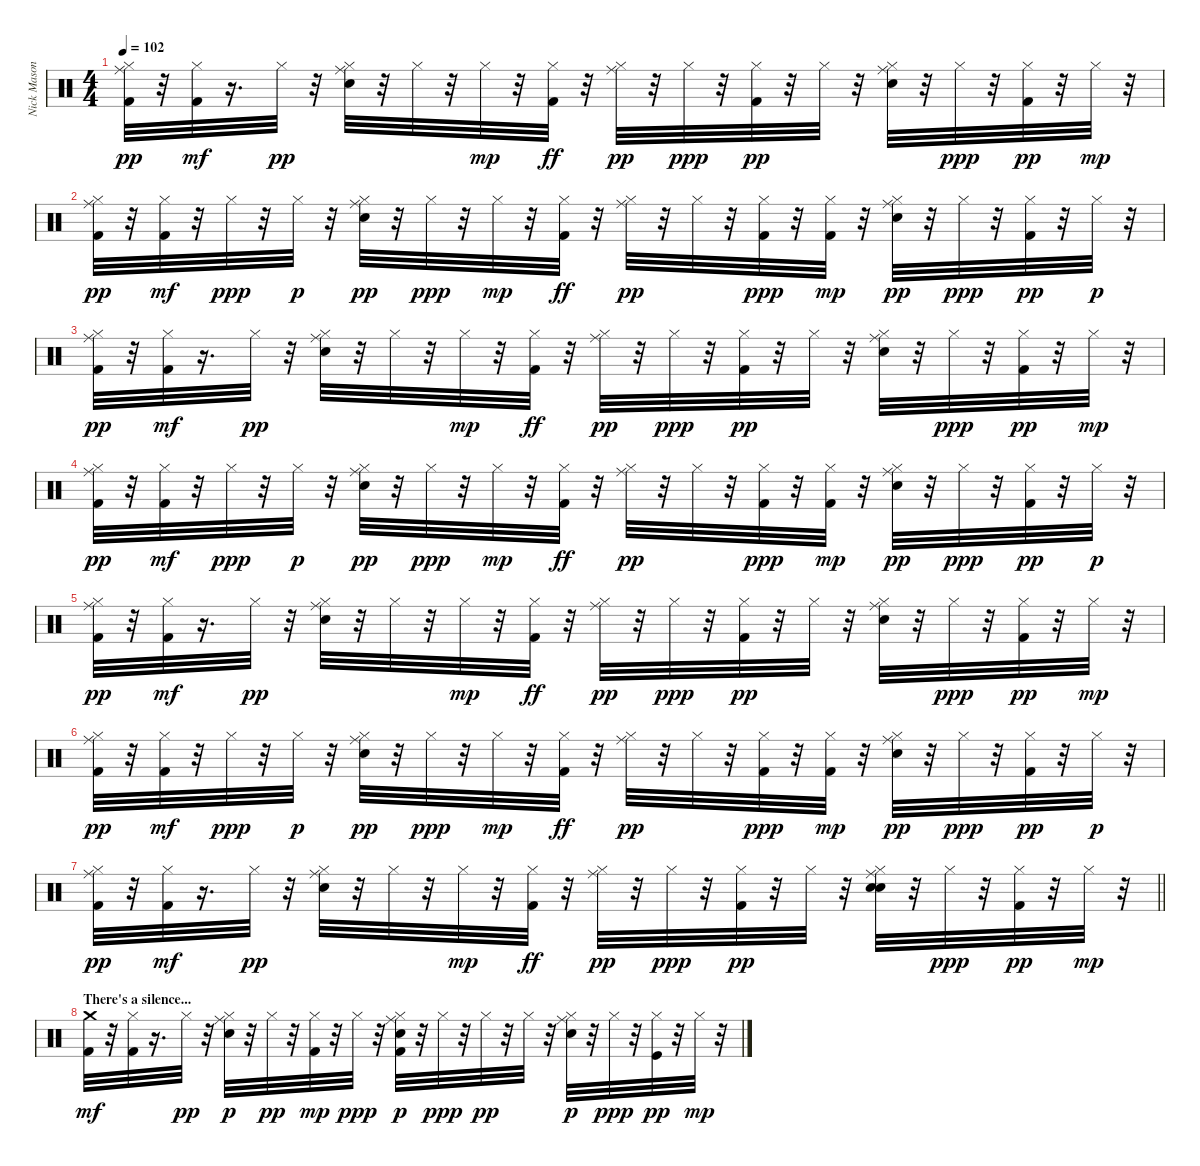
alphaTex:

\track ("Nick Mason / Gary Wallis" "Nick Mason") {instrument percussion}
\staff {score}
\articulation defaults
\ts (4 4)
\tempo 102
\clef neutral
\ks c
("Kick (hit) 2" "Hi-Hat (closed)" "Ride (middle)").32{dy pp} r.32 ("Hi-Hat (closed)" "Kick (hit) 2").32{dy mf} r.16{d} "Hi-Hat (closed)".32{dy pp} r.32 ("Snare (hit) 2" "Hi-Hat (closed)" "Ride (middle)").32 r.32 "Hi-Hat (closed)".32 r.32 "Hi-Hat (closed)".32{dy mp} r.32 ("Hi-Hat (closed)" "Kick (hit) 2").32{dy ff} r.32 ("Hi-Hat (closed)" "Ride (middle)").32{dy pp} r.32 "Hi-Hat (closed)".32{dy ppp} r.32 ("Hi-Hat (closed)" "Kick (hit) 2").32{dy pp} r.32 "Hi-Hat (closed)".32 r.32 ("Snare (hit) 2" "Hi-Hat (closed)" "Ride (middle)").32 r.32 "Hi-Hat (closed)".32{dy ppp} r.32 ("Kick (hit) 2" "Hi-Hat (closed)").32{dy pp} r.32 "Hi-Hat (closed)".32{dy mp} r.32 |
("Kick (hit) 2" "Hi-Hat (closed)" "Ride (middle)").32{dy pp} r.32 ("Hi-Hat (closed)" "Kick (hit) 2").32{dy mf} r.32 "Hi-Hat (closed)".32{dy ppp} r.32 "Hi-Hat (closed)".32{dy p} r.32 ("Snare (hit) 2" "Hi-Hat (closed)" "Ride (middle)").32{dy pp} r.32 "Hi-Hat (closed)".32{dy ppp} r.32 "Hi-Hat (closed)".32{dy mp} r.32 ("Hi-Hat (closed)" "Kick (hit) 2").32{dy ff} r.32 ("Hi-Hat (closed)" "Ride (middle)").32{dy pp} r.32 "Hi-Hat (closed)".32 r.32 ("Hi-Hat (closed)" "Kick (hit) 2").32{dy ppp} r.32 ("Hi-Hat (closed)" "Kick (hit) 2").32{dy mp} r.32 ("Snare (hit) 2" "Hi-Hat (closed)" "Ride (middle)").32{dy pp} r.32 "Hi-Hat (closed)".32{dy ppp} r.32 ("Kick (hit) 2" "Hi-Hat (closed)").32{dy pp} r.32 "Hi-Hat (closed)".32{dy p} r.32 |
("Kick (hit) 2" "Hi-Hat (closed)" "Ride (middle)").32{dy pp} r.32 ("Hi-Hat (closed)" "Kick (hit) 2").32{dy mf} r.16{d} "Hi-Hat (closed)".32{dy pp} r.32 ("Snare (hit) 2" "Hi-Hat (closed)" "Ride (middle)").32 r.32 "Hi-Hat (closed)".32 r.32 "Hi-Hat (closed)".32{dy mp} r.32 ("Hi-Hat (closed)" "Kick (hit) 2").32{dy ff} r.32 ("Hi-Hat (closed)" "Ride (middle)").32{dy pp} r.32 "Hi-Hat (closed)".32{dy ppp} r.32 ("Hi-Hat (closed)" "Kick (hit) 2").32{dy pp} r.32 "Hi-Hat (closed)".32 r.32 ("Snare (hit) 2" "Hi-Hat (closed)" "Ride (middle)").32 r.32 "Hi-Hat (closed)".32{dy ppp} r.32 ("Kick (hit) 2" "Hi-Hat (closed)").32{dy pp} r.32 "Hi-Hat (closed)".32{dy mp} r.32 |
("Kick (hit) 2" "Hi-Hat (closed)" "Ride (middle)").32{dy pp} r.32 ("Hi-Hat (closed)" "Kick (hit) 2").32{dy mf} r.32 "Hi-Hat (closed)".32{dy ppp} r.32 "Hi-Hat (closed)".32{dy p} r.32 ("Snare (hit) 2" "Hi-Hat (closed)" "Ride (middle)").32{dy pp} r.32 "Hi-Hat (closed)".32{dy ppp} r.32 "Hi-Hat (closed)".32{dy mp} r.32 ("Hi-Hat (closed)" "Kick (hit) 2").32{dy ff} r.32 ("Hi-Hat (closed)" "Ride (middle)").32{dy pp} r.32 "Hi-Hat (closed)".32 r.32 ("Hi-Hat (closed)" "Kick (hit) 2").32{dy ppp} r.32 ("Hi-Hat (closed)" "Kick (hit) 2").32{dy mp} r.32 ("Snare (hit) 2" "Hi-Hat (closed)" "Ride (middle)").32{dy pp} r.32 "Hi-Hat (closed)".32{dy ppp} r.32 ("Kick (hit) 2" "Hi-Hat (closed)").32{dy pp} r.32 "Hi-Hat (closed)".32{dy p} r.32 |
("Kick (hit) 2" "Hi-Hat (closed)" "Ride (middle)").32{dy pp} r.32 ("Hi-Hat (closed)" "Kick (hit) 2").32{dy mf} r.16{d} "Hi-Hat (closed)".32{dy pp} r.32 ("Snare (hit) 2" "Hi-Hat (closed)" "Ride (middle)").32 r.32 "Hi-Hat (closed)".32 r.32 "Hi-Hat (closed)".32{dy mp} r.32 ("Hi-Hat (closed)" "Kick (hit) 2").32{dy ff} r.32 ("Hi-Hat (closed)" "Ride (middle)").32{dy pp} r.32 "Hi-Hat (closed)".32{dy ppp} r.32 ("Hi-Hat (closed)" "Kick (hit) 2").32{dy pp} r.32 "Hi-Hat (closed)".32 r.32 ("Snare (hit) 2" "Hi-Hat (closed)" "Ride (middle)").32 r.32 "Hi-Hat (closed)".32{dy ppp} r.32 ("Kick (hit) 2" "Hi-Hat (closed)").32{dy pp} r.32 "Hi-Hat (closed)".32{dy mp} r.32 |
("Kick (hit) 2" "Hi-Hat (closed)" "Ride (middle)").32{dy pp} r.32 ("Hi-Hat (closed)" "Kick (hit) 2").32{dy mf} r.32 "Hi-Hat (closed)".32{dy ppp} r.32 "Hi-Hat (closed)".32{dy p} r.32 ("Snare (hit) 2" "Hi-Hat (closed)" "Ride (middle)").32{dy pp} r.32 "Hi-Hat (closed)".32{dy ppp} r.32 "Hi-Hat (closed)".32{dy mp} r.32 ("Hi-Hat (closed)" "Kick (hit) 2").32{dy ff} r.32 ("Hi-Hat (closed)" "Ride (middle)").32{dy pp} r.32 "Hi-Hat (closed)".32 r.32 ("Hi-Hat (closed)" "Kick (hit) 2").32{dy ppp} r.32 ("Hi-Hat (closed)" "Kick (hit) 2").32{dy mp} r.32 ("Snare (hit) 2" "Hi-Hat (closed)" "Ride (middle)").32{dy pp} r.32 "Hi-Hat (closed)".32{dy ppp} r.32 ("Kick (hit) 2" "Hi-Hat (closed)").32{dy pp} r.32 "Hi-Hat (closed)".32{dy p} r.32 |
\barLineRight lightlight
("Kick (hit) 2" "Hi-Hat (closed)" "Ride (middle)").32{dy pp} r.32 ("Hi-Hat (closed)" "Kick (hit) 2").32{dy mf} r.16{d} "Hi-Hat (closed)".32{dy pp} r.32 ("Snare (hit) 2" "Hi-Hat (closed)" "Ride (middle)").32 r.32 "Hi-Hat (closed)".32 r.32 "Hi-Hat (closed)".32{dy mp} r.32 ("Hi-Hat (closed)" "Kick (hit) 2").32{dy ff} r.32 ("Hi-Hat (closed)" "Ride (middle)").32{dy pp} r.32 "Hi-Hat (closed)".32{dy ppp} r.32 ("Hi-Hat (closed)" "Kick (hit) 2").32{dy pp} r.32 "Hi-Hat (closed)".32 r.32 ("Snare (hit) 2" "Electric Snare (hit)" "Hi-Hat (closed)" "Ride (middle)").32 r.32 "Hi-Hat (closed)".32{dy ppp} r.32 ("Kick (hit) 2" "Hi-Hat (closed)").32{dy pp} r.32 "Hi-Hat (closed)".32{dy mp} r.32 |
\section ("" "There's a silence...")
("Kick (hit) 2" "Crash medium (hit)").32{dy mf} r.32 ("Hi-Hat (closed)" "Kick (hit) 2").32 r.16{d} "Hi-Hat (closed)".32{dy pp} r.32 ("Snare (hit) 2" "Hi-Hat (closed)" "Ride (middle)").32{dy p} r.32 "Hi-Hat (closed)".32{dy pp} r.32 ("Kick (hit) 2" "Hi-Hat (closed)").32{dy mp} r.32 "Hi-Hat (closed)".32{dy ppp} r.32 ("Kick (hit) 2" "Electric Snare (hit)" "Hi-Hat (closed)" "Ride (middle)").32{dy p} r.32 "Hi-Hat (closed)".32{dy ppp} r.32 "Hi-Hat (closed)".32{dy pp} r.32 "Hi-Hat (closed)".32 r.32 ("Snare (hit) 2" "Hi-Hat (closed)" "Ride (middle)").32{dy p} r.32 "Hi-Hat (closed)".32{dy ppp} r.32 ("Kick (hit)" "Hi-Hat (closed)").32{dy pp} r.32 "Hi-Hat (closed)".32{dy mp} r.32
